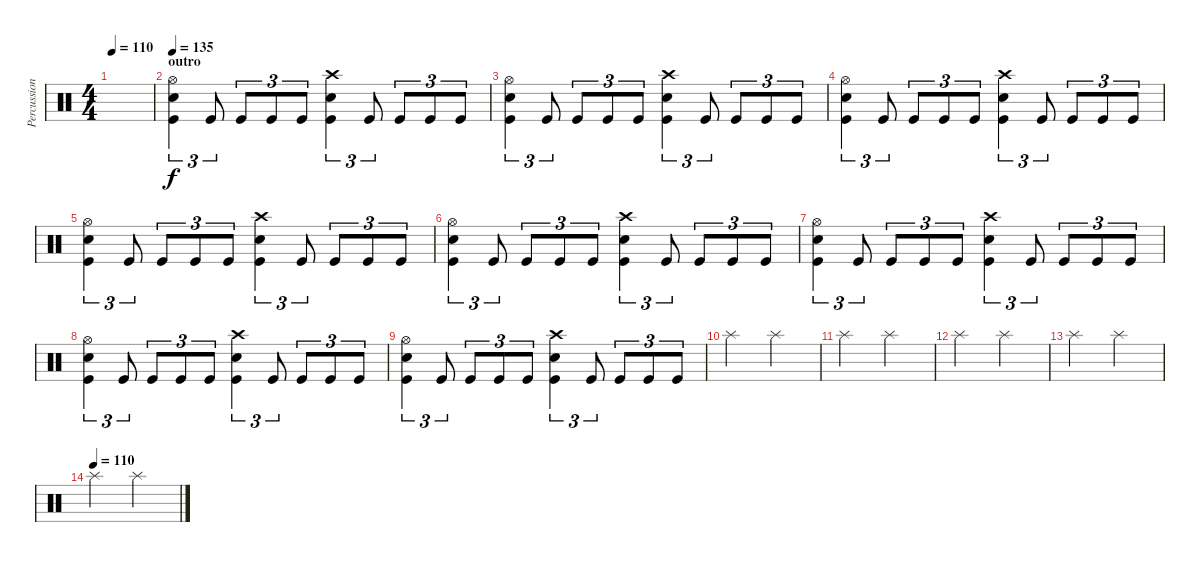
\track ("Percussions" "Percussion") {instrument percussion}
\staff {score}
\articulation defaults
\ts (4 4)
\tempo 110
\clef neutral
\ks c
|
\section ("" "outro")
\tempo 135
("Hi-Hat (open)" "Snare (hit) 2" "Kick (hit)").4{tu (3 2)} "Kick (hit)".8{tu (3 2)} "Kick (hit)".8{tu (3 2)} "Kick (hit)".8{tu (3 2)} "Kick (hit)".8{tu (3 2)} ("Crash high (hit)" "Snare (hit) 2" "Kick (hit)").4{tu (3 2)} "Kick (hit)".8{tu (3 2)} "Kick (hit)".8{tu (3 2)} "Kick (hit)".8{tu (3 2)} "Kick (hit)".8{tu (3 2)} |
("Hi-Hat (open)" "Snare (hit) 2" "Kick (hit)").4{tu (3 2)} "Kick (hit)".8{tu (3 2)} "Kick (hit)".8{tu (3 2)} "Kick (hit)".8{tu (3 2)} "Kick (hit)".8{tu (3 2)} ("Crash high (hit)" "Snare (hit) 2" "Kick (hit)").4{tu (3 2)} "Kick (hit)".8{tu (3 2)} "Kick (hit)".8{tu (3 2)} "Kick (hit)".8{tu (3 2)} "Kick (hit)".8{tu (3 2)} |
("Hi-Hat (open)" "Snare (hit) 2" "Kick (hit)").4{tu (3 2)} "Kick (hit)".8{tu (3 2)} "Kick (hit)".8{tu (3 2)} "Kick (hit)".8{tu (3 2)} "Kick (hit)".8{tu (3 2)} ("Crash high (hit)" "Snare (hit) 2" "Kick (hit)").4{tu (3 2)} "Kick (hit)".8{tu (3 2)} "Kick (hit)".8{tu (3 2)} "Kick (hit)".8{tu (3 2)} "Kick (hit)".8{tu (3 2)} |
("Hi-Hat (open)" "Snare (hit) 2" "Kick (hit)").4{tu (3 2)} "Kick (hit)".8{tu (3 2)} "Kick (hit)".8{tu (3 2)} "Kick (hit)".8{tu (3 2)} "Kick (hit)".8{tu (3 2)} ("Crash high (hit)" "Snare (hit) 2" "Kick (hit)").4{tu (3 2)} "Kick (hit)".8{tu (3 2)} "Kick (hit)".8{tu (3 2)} "Kick (hit)".8{tu (3 2)} "Kick (hit)".8{tu (3 2)} |
("Hi-Hat (open)" "Snare (hit) 2" "Kick (hit)").4{tu (3 2)} "Kick (hit)".8{tu (3 2)} "Kick (hit)".8{tu (3 2)} "Kick (hit)".8{tu (3 2)} "Kick (hit)".8{tu (3 2)} ("Crash high (hit)" "Snare (hit) 2" "Kick (hit)").4{tu (3 2)} "Kick (hit)".8{tu (3 2)} "Kick (hit)".8{tu (3 2)} "Kick (hit)".8{tu (3 2)} "Kick (hit)".8{tu (3 2)} |
("Hi-Hat (open)" "Snare (hit) 2" "Kick (hit)").4{tu (3 2)} "Kick (hit)".8{tu (3 2)} "Kick (hit)".8{tu (3 2)} "Kick (hit)".8{tu (3 2)} "Kick (hit)".8{tu (3 2)} ("Crash high (hit)" "Snare (hit) 2" "Kick (hit)").4{tu (3 2)} "Kick (hit)".8{tu (3 2)} "Kick (hit)".8{tu (3 2)} "Kick (hit)".8{tu (3 2)} "Kick (hit)".8{tu (3 2)} |
("Hi-Hat (open)" "Snare (hit) 2" "Kick (hit)").4{tu (3 2)} "Kick (hit)".8{tu (3 2)} "Kick (hit)".8{tu (3 2)} "Kick (hit)".8{tu (3 2)} "Kick (hit)".8{tu (3 2)} ("Crash high (hit)" "Snare (hit) 2" "Kick (hit)").4{tu (3 2)} "Kick (hit)".8{tu (3 2)} "Kick (hit)".8{tu (3 2)} "Kick (hit)".8{tu (3 2)} "Kick (hit)".8{tu (3 2)} |
("Hi-Hat (open)" "Snare (hit) 2" "Kick (hit)").4{tu (3 2)} "Kick (hit)".8{tu (3 2)} "Kick (hit)".8{tu (3 2)} "Kick (hit)".8{tu (3 2)} "Kick (hit)".8{tu (3 2)} ("Crash high (hit)" "Snare (hit) 2" "Kick (hit)").4{tu (3 2)} "Kick (hit)".8{tu (3 2)} "Kick (hit)".8{tu (3 2)} "Kick (hit)".8{tu (3 2)} "Kick (hit)".8{tu (3 2)} |
"Splash (hit)".2 "Splash (hit)".2 |
"Splash (hit)".2 "Splash (hit)".2 |
"Splash (hit)".2 "Splash (hit)".2 |
"Splash (hit)".2 "Splash (hit)".2 |
\tempo (110)
"Splash (hit)".2 "Splash (hit)".2
